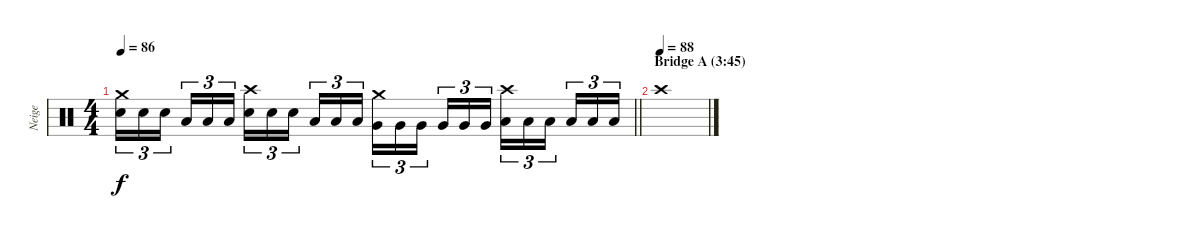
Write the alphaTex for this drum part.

\track ("Neige" "Neige") {instrument percussion}
\staff {score}
\articulation defaults
\ts (4 4)
\tempo 86
\clef neutral
\barLineRight lightlight
\ks c
("Snare (hit) 2" "Crash medium (hit)").16{tu (3 2) dy f} "Snare (hit) 2".16{tu (3 2)} "Snare (hit) 2".16{tu (3 2) beam splitsecondary} "Low Tom (hit)".16{tu (3 2)} "Low Tom (hit)".16{tu (3 2)} "Low Tom (hit)".16{tu (3 2)} ("Snare (hit) 2" "Crash high (hit)").16{tu (3 2)} "Snare (hit) 2".16{tu (3 2)} "Snare (hit) 2".16{tu (3 2) beam splitsecondary} "Low Tom (hit)".16{tu (3 2)} "Low Tom (hit)".16{tu (3 2)} "Low Tom (hit)".16{tu (3 2)} ("Very Low Tom (hit)" "Crash medium (hit)").16{tu (3 2)} "Very Low Tom (hit)".16{tu (3 2)} "Very Low Tom (hit)".16{tu (3 2) beam splitsecondary} "Very Low Tom (hit)".16{tu (3 2)} "Very Low Tom (hit)".16{tu (3 2)} "Very Low Tom (hit)".16{tu (3 2)} ("Low Floor Tom (hit)" "Crash high (hit)").16{tu (3 2)} "Low Floor Tom (hit)".16{tu (3 2)} "Low Floor Tom (hit)".16{tu (3 2) beam splitsecondary} "Low Floor Tom (hit)".16{tu (3 2)} "Low Floor Tom (hit)".16{tu (3 2)} "Low Floor Tom (hit)".16{tu (3 2)} |
\section ("" "Bridge A (3:45)")
\tempo (88)
"Crash high (hit)".1
